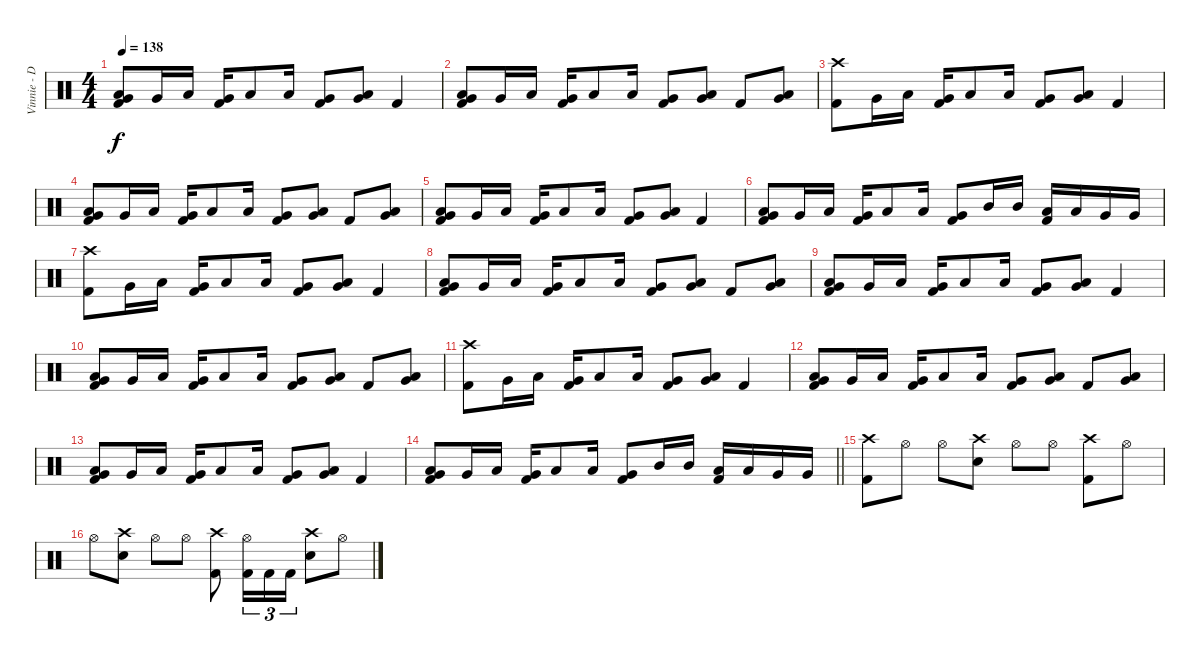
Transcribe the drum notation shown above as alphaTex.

\track ("Vinnie - Drums" "Vinnie - D") {instrument percussion}
\staff {score}
\articulation defaults
\ts (4 4)
\tempo 138
\clef neutral
\ks c
("Low Tom (hit)" "Very Low Tom (hit)" "Kick (hit) 2").8{dy f} "Very Low Tom (hit)".16 "Low Tom (hit)".16 ("Very Low Tom (hit)" "Kick (hit) 2").16 "Low Tom (hit)".8 "Low Tom (hit)".16 ("Very Low Tom (hit)" "Kick (hit) 2").8 ("Low Tom (hit)" "Very Low Tom (hit)").8 "Kick (hit) 2".4 |
("Low Tom (hit)" "Very Low Tom (hit)" "Kick (hit) 2").8 "Very Low Tom (hit)".16 "Low Tom (hit)".16 ("Very Low Tom (hit)" "Kick (hit) 2").16 "Low Tom (hit)".8 "Low Tom (hit)".16 ("Very Low Tom (hit)" "Kick (hit) 2").8 ("Low Tom (hit)" "Very Low Tom (hit)").8 "Kick (hit) 2".8 ("Low Tom (hit)" "Very Low Tom (hit)").8 |
("Crash high (hit)" "Kick (hit) 2").8 "Very Low Tom (hit)".16 "Low Tom (hit)".16 ("Very Low Tom (hit)" "Kick (hit) 2").16 "Low Tom (hit)".8 "Low Tom (hit)".16 ("Very Low Tom (hit)" "Kick (hit) 2").8 ("Low Tom (hit)" "Very Low Tom (hit)").8 "Kick (hit) 2".4 |
("Low Tom (hit)" "Very Low Tom (hit)" "Kick (hit) 2").8 "Very Low Tom (hit)".16 "Low Tom (hit)".16 ("Very Low Tom (hit)" "Kick (hit) 2").16 "Low Tom (hit)".8 "Low Tom (hit)".16 ("Very Low Tom (hit)" "Kick (hit) 2").8 ("Low Tom (hit)" "Very Low Tom (hit)").8 "Kick (hit) 2".8 ("Low Tom (hit)" "Very Low Tom (hit)").8 |
("Low Tom (hit)" "Very Low Tom (hit)" "Kick (hit) 2").8 "Very Low Tom (hit)".16 "Low Tom (hit)".16 ("Very Low Tom (hit)" "Kick (hit) 2").16 "Low Tom (hit)".8 "Low Tom (hit)".16 ("Very Low Tom (hit)" "Kick (hit) 2").8 ("Low Tom (hit)" "Very Low Tom (hit)").8 "Kick (hit) 2".4 |
("Low Tom (hit)" "Very Low Tom (hit)" "Kick (hit) 2").8 "Very Low Tom (hit)".16 "Low Tom (hit)".16 ("Very Low Tom (hit)" "Kick (hit) 2").16 "Low Tom (hit)".8 "Low Tom (hit)".16 ("Very Low Tom (hit)" "Kick (hit) 2").8 "Mid Tom (hit)".16 "Mid Tom (hit)".16 ("Low Tom (hit)" "Kick (hit) 2").16 "Low Tom (hit)".16 "Very Low Tom (hit)".16 "Very Low Tom (hit)".16 |
("Crash high (hit)" "Kick (hit) 2").8 "Very Low Tom (hit)".16 "Low Tom (hit)".16 ("Very Low Tom (hit)" "Kick (hit) 2").16 "Low Tom (hit)".8 "Low Tom (hit)".16 ("Very Low Tom (hit)" "Kick (hit) 2").8 ("Low Tom (hit)" "Very Low Tom (hit)").8 "Kick (hit) 2".4 |
("Low Tom (hit)" "Very Low Tom (hit)" "Kick (hit) 2").8 "Very Low Tom (hit)".16 "Low Tom (hit)".16 ("Very Low Tom (hit)" "Kick (hit) 2").16 "Low Tom (hit)".8 "Low Tom (hit)".16 ("Very Low Tom (hit)" "Kick (hit) 2").8 ("Low Tom (hit)" "Very Low Tom (hit)").8 "Kick (hit) 2".8 ("Low Tom (hit)" "Very Low Tom (hit)").8 |
("Low Tom (hit)" "Very Low Tom (hit)" "Kick (hit) 2").8 "Very Low Tom (hit)".16 "Low Tom (hit)".16 ("Very Low Tom (hit)" "Kick (hit) 2").16 "Low Tom (hit)".8 "Low Tom (hit)".16 ("Very Low Tom (hit)" "Kick (hit) 2").8 ("Low Tom (hit)" "Very Low Tom (hit)").8 "Kick (hit) 2".4 |
("Low Tom (hit)" "Very Low Tom (hit)" "Kick (hit) 2").8 "Very Low Tom (hit)".16 "Low Tom (hit)".16 ("Very Low Tom (hit)" "Kick (hit) 2").16 "Low Tom (hit)".8 "Low Tom (hit)".16 ("Very Low Tom (hit)" "Kick (hit) 2").8 ("Low Tom (hit)" "Very Low Tom (hit)").8 "Kick (hit) 2".8 ("Low Tom (hit)" "Very Low Tom (hit)").8 |
("Crash high (hit)" "Kick (hit) 2").8 "Very Low Tom (hit)".16 "Low Tom (hit)".16 ("Very Low Tom (hit)" "Kick (hit) 2").16 "Low Tom (hit)".8 "Low Tom (hit)".16 ("Very Low Tom (hit)" "Kick (hit) 2").8 ("Low Tom (hit)" "Very Low Tom (hit)").8 "Kick (hit) 2".4 |
("Low Tom (hit)" "Very Low Tom (hit)" "Kick (hit) 2").8 "Very Low Tom (hit)".16 "Low Tom (hit)".16 ("Very Low Tom (hit)" "Kick (hit) 2").16 "Low Tom (hit)".8 "Low Tom (hit)".16 ("Very Low Tom (hit)" "Kick (hit) 2").8 ("Low Tom (hit)" "Very Low Tom (hit)").8 "Kick (hit) 2".8 ("Low Tom (hit)" "Very Low Tom (hit)").8 |
("Low Tom (hit)" "Very Low Tom (hit)" "Kick (hit) 2").8 "Very Low Tom (hit)".16 "Low Tom (hit)".16 ("Very Low Tom (hit)" "Kick (hit) 2").16 "Low Tom (hit)".8 "Low Tom (hit)".16 ("Very Low Tom (hit)" "Kick (hit) 2").8 ("Low Tom (hit)" "Very Low Tom (hit)").8 "Kick (hit) 2".4 |
\barLineRight lightlight
("Low Tom (hit)" "Very Low Tom (hit)" "Kick (hit) 2").8 "Very Low Tom (hit)".16 "Low Tom (hit)".16 ("Very Low Tom (hit)" "Kick (hit) 2").16 "Low Tom (hit)".8 "Low Tom (hit)".16 ("Very Low Tom (hit)" "Kick (hit) 2").8 "Mid Tom (hit)".16 "Mid Tom (hit)".16 ("Low Tom (hit)" "Kick (hit) 2").16 "Low Tom (hit)".16 "Very Low Tom (hit)".16 "Very Low Tom (hit)".16 |
("Crash high (hit)" "Kick (hit) 2").8 "Hi-Hat (open)".8 "Hi-Hat (open)".8 ("Crash high (hit)" "Snare (hit) 2").8 "Hi-Hat (open)".8 "Hi-Hat (open)".8 ("Crash high (hit)" "Kick (hit) 2").8 "Hi-Hat (open)".8 |
"Hi-Hat (open)".8 ("Crash high (hit)" "Snare (hit) 2").8 "Hi-Hat (open)".8 "Hi-Hat (open)".8 ("Crash high (hit)" "Kick (hit) 2").8 ("Hi-Hat (open)" "Kick (hit) 2").16{tu (3 2)} "Kick (hit) 2".16{tu (3 2)} "Kick (hit) 2".16{tu (3 2)} ("Crash high (hit)" "Snare (hit) 2").8 "Hi-Hat (open)".8
